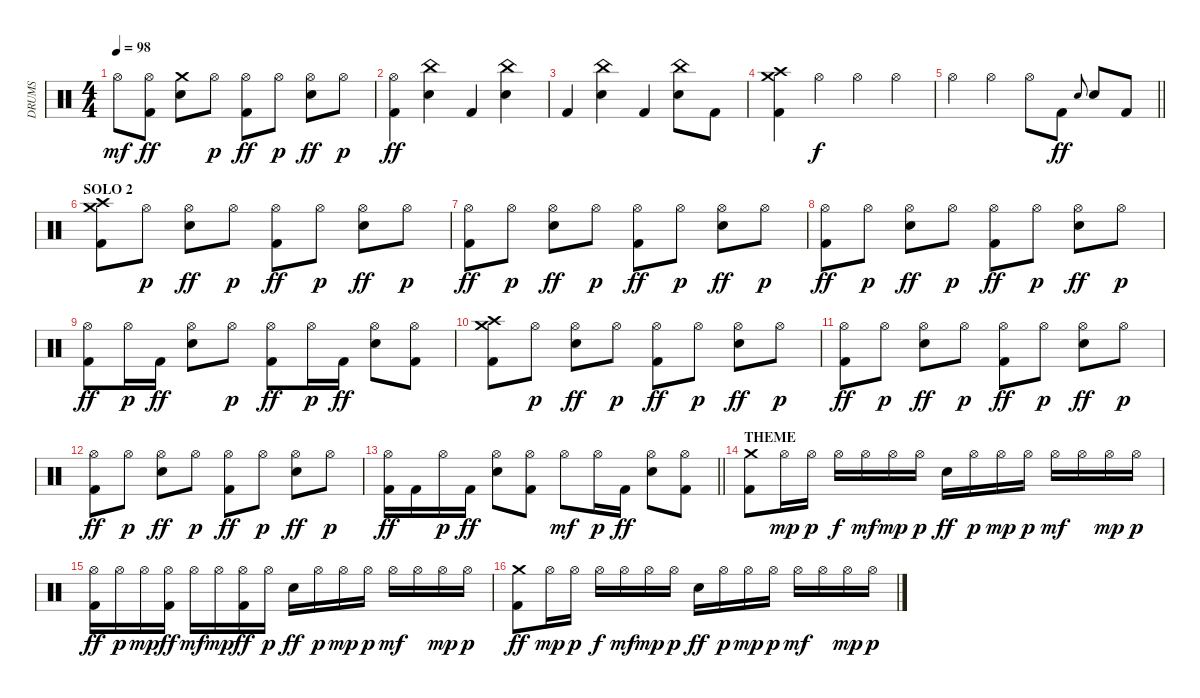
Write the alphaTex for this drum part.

\track ("DRUMS" "DRUMS") {instrument percussion}
\staff {score}
\articulation defaults
\ts (4 4)
\tempo 98
\clef neutral
\ks c "Hi-Hat (open)".8{dy mf}
("Hi-Hat (open)" "Kick (hit) 2").8{dy ff} ("Crash medium (hit)" "Snare (hit) 2").8 "Hi-Hat (open)".8{dy p} ("Hi-Hat (open)" "Kick (hit) 2").8{dy ff} "Hi-Hat (open)".8{dy p} ("Hi-Hat (open)" "Snare (hit) 2").8{dy ff} "Hi-Hat (open)".8{dy p} |
("Hi-Hat (open)" "Kick (hit) 2").4{dy ff} ("China (hit)" "Snare (hit) 2").4 "Kick (hit) 2".4 ("China (hit)" "Snare (hit) 2").4 |
"Kick (hit) 2".4 ("China (hit)" "Snare (hit) 2").4 "Kick (hit) 2".4 ("China (hit)" "Snare (hit) 2").8 "Kick (hit) 2".8 |
("Crash high (hit)" "Crash medium (hit)" "Kick (hit) 2").4 "Hi-Hat (open)".4{dy f} "Hi-Hat (open)".4 "Hi-Hat (open)".4 |
\barLineRight lightlight "Hi-Hat (open)".4 "Hi-Hat (open)".4 "Hi-Hat (open)".8 "Kick (hit) 2".8{dy ff} "Snare (hit) 2".8{gr onbeat} "Snare (hit) 2".8 "Kick (hit) 2".8
|
\section ("" "SOLO 2")
("Crash high (hit)" "Crash medium (hit)" "Kick (hit) 2").8 "Hi-Hat (open)".8{dy p} ("Hi-Hat (open)" "Snare (hit) 2").8{dy ff} "Hi-Hat (open)".8{dy p} ("Hi-Hat (open)" "Kick (hit) 2").8{dy ff} "Hi-Hat (open)".8{dy p} ("Hi-Hat (open)" "Snare (hit) 2").8{dy ff} "Hi-Hat (open)".8{dy p} |
("Hi-Hat (open)" "Kick (hit) 2").8{dy ff} "Hi-Hat (open)".8{dy p} ("Hi-Hat (open)" "Snare (hit) 2").8{dy ff} "Hi-Hat (open)".8{dy p} ("Hi-Hat (open)" "Kick (hit) 2").8{dy ff} "Hi-Hat (open)".8{dy p} ("Hi-Hat (open)" "Snare (hit) 2").8{dy ff} "Hi-Hat (open)".8{dy p} |
("Hi-Hat (open)" "Kick (hit) 2").8{dy ff} "Hi-Hat (open)".8{dy p} ("Hi-Hat (open)" "Snare (hit) 2").8{dy ff} "Hi-Hat (open)".8{dy p} ("Hi-Hat (open)" "Kick (hit) 2").8{dy ff} "Hi-Hat (open)".8{dy p} ("Hi-Hat (open)" "Snare (hit) 2").8{dy ff} "Hi-Hat (open)".8{dy p} |
("Hi-Hat (open)" "Kick (hit) 2").8{dy ff} "Hi-Hat (open)".16{dy p} "Kick (hit) 2".16{dy ff} ("Hi-Hat (open)" "Snare (hit) 2").8 "Hi-Hat (open)".8{dy p} ("Hi-Hat (open)" "Kick (hit) 2").8{dy ff} "Hi-Hat (open)".16{dy p} "Kick (hit) 2".16{dy ff} ("Hi-Hat (open)" "Snare (hit) 2").8 ("Hi-Hat (open)" "Kick (hit) 2").8 |
("Crash high (hit)" "Crash medium (hit)" "Kick (hit) 2").8 "Hi-Hat (open)".8{dy p} ("Hi-Hat (open)" "Snare (hit) 2").8{dy ff} "Hi-Hat (open)".8{dy p} ("Hi-Hat (open)" "Kick (hit) 2").8{dy ff} "Hi-Hat (open)".8{dy p} ("Hi-Hat (open)" "Snare (hit) 2").8{dy ff} "Hi-Hat (open)".8{dy p} |
("Hi-Hat (open)" "Kick (hit) 2").8{dy ff} "Hi-Hat (open)".8{dy p} ("Hi-Hat (open)" "Snare (hit) 2").8{dy ff} "Hi-Hat (open)".8{dy p} ("Hi-Hat (open)" "Kick (hit) 2").8{dy ff} "Hi-Hat (open)".8{dy p} ("Hi-Hat (open)" "Snare (hit) 2").8{dy ff} "Hi-Hat (open)".8{dy p} |
("Hi-Hat (open)" "Kick (hit) 2").8{dy ff} "Hi-Hat (open)".8{dy p} ("Hi-Hat (open)" "Snare (hit) 2").8{dy ff} "Hi-Hat (open)".8{dy p} ("Hi-Hat (open)" "Kick (hit) 2").8{dy ff} "Hi-Hat (open)".8{dy p} ("Hi-Hat (open)" "Snare (hit) 2").8{dy ff} "Hi-Hat (open)".8{dy p} |
\barLineRight lightlight
("Hi-Hat (open)" "Kick (hit) 2").16{dy ff} "Kick (hit) 2".16 "Hi-Hat (open)".16{dy p} "Kick (hit) 2".16{dy ff} ("Hi-Hat (open)" "Snare (hit) 2").8 ("Hi-Hat (open)" "Kick (hit) 2").8 "Hi-Hat (open)".8{dy mf} "Hi-Hat (open)".16{dy p} "Kick (hit) 2".16{dy ff} ("Hi-Hat (open)" "Snare (hit) 2").8 ("Hi-Hat (open)" "Kick (hit) 2").8 |
\section ("" "THEME")
("Crash medium (hit)" "Kick (hit) 2").8 "Hi-Hat (open)".16{dy mp} "Hi-Hat (open)".16{dy p} "Hi-Hat (open)".16{dy f} "Hi-Hat (open)".16{dy mf} "Hi-Hat (open)".16{dy mp} "Hi-Hat (open)".16{dy p} "Snare (hit) 2".16{dy ff} "Hi-Hat (open)".16{dy p} "Hi-Hat (open)".16{dy mp} "Hi-Hat (open)".16{dy p} "Hi-Hat (open)".16{dy mf} "Hi-Hat (open)".16 "Hi-Hat (open)".16{dy mp} "Hi-Hat (open)".16{dy p} |
("Hi-Hat (open)" "Kick (hit) 2").16{dy ff} "Hi-Hat (open)".16{dy p} "Hi-Hat (open)".16{dy mp} ("Hi-Hat (open)" "Kick (hit) 2").16{dy ff} "Hi-Hat (open)".16{dy mf} "Hi-Hat (open)".16{dy mp} ("Hi-Hat (open)" "Kick (hit) 2").16{dy ff} "Hi-Hat (open)".16{dy p} "Snare (hit) 2".16{dy ff} "Hi-Hat (open)".16{dy p} "Hi-Hat (open)".16{dy mp} "Hi-Hat (open)".16{dy p} "Hi-Hat (open)".16{dy mf} "Hi-Hat (open)".16 "Hi-Hat (open)".16{dy mp} "Hi-Hat (open)".16{dy p} |
("Crash medium (hit)" "Kick (hit) 2").8{dy ff} "Hi-Hat (open)".16{dy mp} "Hi-Hat (open)".16{dy p} "Hi-Hat (open)".16{dy f} "Hi-Hat (open)".16{dy mf} "Hi-Hat (open)".16{dy mp} "Hi-Hat (open)".16{dy p} "Snare (hit) 2".16{dy ff} "Hi-Hat (open)".16{dy p} "Hi-Hat (open)".16{dy mp} "Hi-Hat (open)".16{dy p} "Hi-Hat (open)".16{dy mf} "Hi-Hat (open)".16 "Hi-Hat (open)".16{dy mp} "Hi-Hat (open)".16{dy p}
